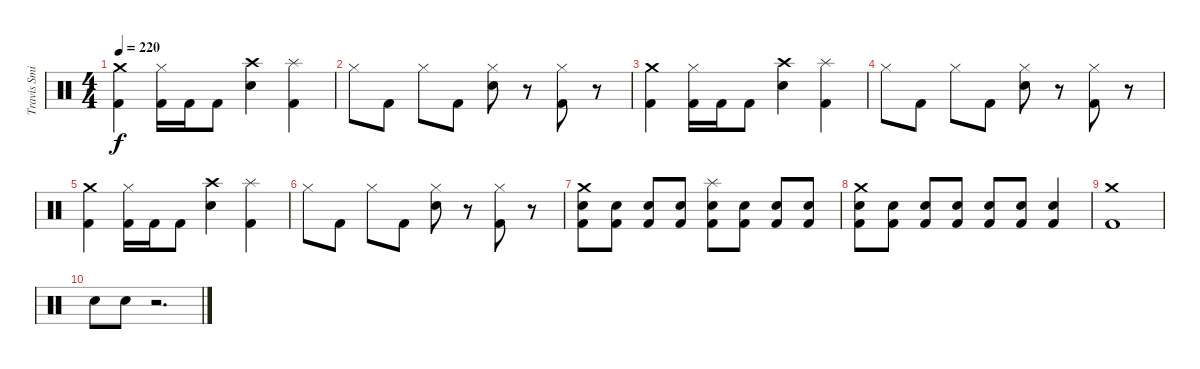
\track ("Travis Smith" "Travis Smi") {instrument percussion}
\staff {score}
\articulation defaults
\ts (4 4)
\tempo 220
\clef neutral
\ks c
("Crash medium (hit)" "Kick (hit) 2").4{dy f} ("Hi-Hat (closed)" "Kick (hit) 2").16 "Kick (hit) 2".16 "Kick (hit) 2".8 ("Crash high (hit)" "Electric Snare (hit)").4 ("Splash (hit)" "Kick (hit) 2").4 |
"Hi-Hat (closed)".8 "Kick (hit) 2".8 "Hi-Hat (closed)".8 "Kick (hit) 2".8 ("Hi-Hat (closed)" "Electric Snare (hit)").8 r.8 ("Hi-Hat (closed)" "Kick (hit) 2").8 r.8 |
("Crash medium (hit)" "Kick (hit) 2").4 ("Hi-Hat (closed)" "Kick (hit) 2").16 "Kick (hit) 2".16 "Kick (hit) 2".8 ("Crash high (hit)" "Electric Snare (hit)").4 ("Splash (hit)" "Kick (hit) 2").4 |
"Hi-Hat (closed)".8 "Kick (hit) 2".8 "Hi-Hat (closed)".8 "Kick (hit) 2".8 ("Hi-Hat (closed)" "Electric Snare (hit)").8 r.8 ("Hi-Hat (closed)" "Kick (hit) 2").8 r.8 |
("Crash medium (hit)" "Kick (hit) 2").4 ("Hi-Hat (closed)" "Kick (hit) 2").16 "Kick (hit) 2".16 "Kick (hit) 2".8 ("Crash high (hit)" "Electric Snare (hit)").4 ("Splash (hit)" "Kick (hit) 2").4 |
"Hi-Hat (closed)".8 "Kick (hit) 2".8 "Hi-Hat (closed)".8 "Kick (hit) 2".8 ("Hi-Hat (closed)" "Electric Snare (hit)").8 r.8 ("Hi-Hat (closed)" "Kick (hit) 2").8 r.8 |
("Crash medium (hit)" "Snare (hit) 2" "Kick (hit) 2").8 ("Snare (hit) 2" "Kick (hit) 2").8 ("Snare (hit) 2" "Kick (hit) 2").8 ("Snare (hit) 2" "Kick (hit) 2").8 ("Splash (hit)" "Electric Snare (hit)" "Kick (hit) 2").8 ("Electric Snare (hit)" "Kick (hit) 2").8 ("Electric Snare (hit)" "Kick (hit) 2").8 ("Electric Snare (hit)" "Kick (hit) 2").8 |
("Crash medium (hit)" "Electric Snare (hit)" "Kick (hit) 2").8 ("Electric Snare (hit)" "Kick (hit) 2").8 ("Electric Snare (hit)" "Kick (hit) 2").8 ("Electric Snare (hit)" "Kick (hit) 2").8 ("Electric Snare (hit)" "Kick (hit) 2").8 ("Electric Snare (hit)" "Kick (hit) 2").8 ("Electric Snare (hit)" "Kick (hit) 2").4 |
("Crash medium (hit)" "Kick (hit) 2").1 |
"Electric Snare (hit)".8 "Electric Snare (hit)".8 r.2{d}
